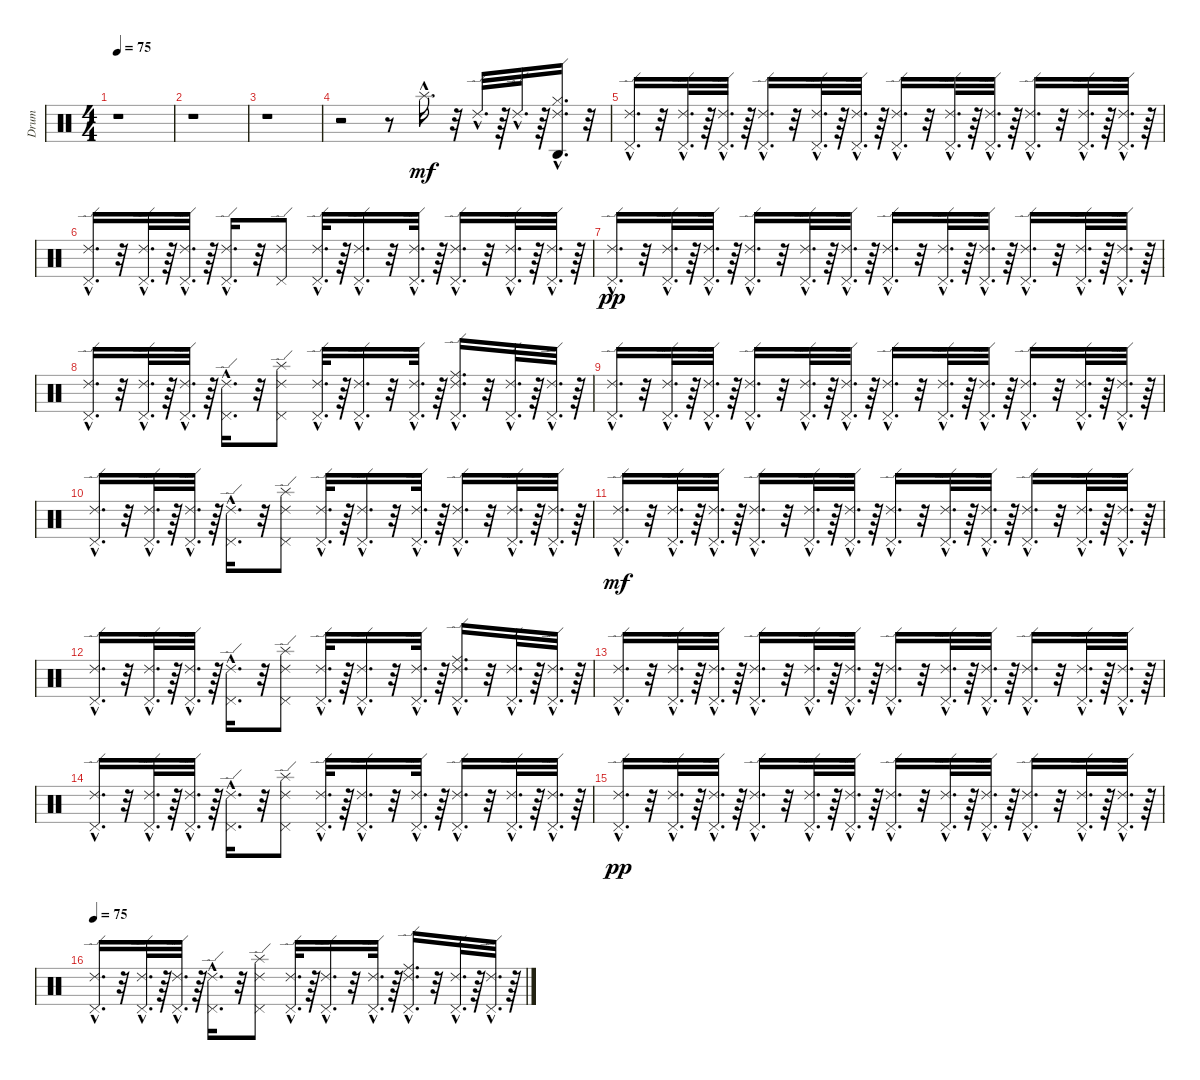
\track ("Drum" "Drum") {instrument percussion}
\staff {score}
\articulation defaults
\ts (4 4)
\tempo 75
\clef neutral
\ks c
r.1{dy mf} |
r.1 |
r.1 |
r.2 r.8 "Splash (hit)"{hac}.16{d} r.32 "Ride (edge) 2"{hac}.32{d} r.64 "Ride (edge) 2"{hac}.32{d} r.64 ("Hi-Hat (closed)"{hac} "Agogo high (hit)"{hac} "Ride (edge) 2"{hac}).16{d} r.32 |
("Pedal Hi-Hat (hit)"{hac} "Ride (edge) 2"{hac}).16{d} r.32 ("Pedal Hi-Hat (hit)"{hac} "Ride (edge) 2"{hac}).32{d} r.64 ("Pedal Hi-Hat (hit)"{hac} "Ride (edge) 2"{hac}).32{d} r.64 ("Pedal Hi-Hat (hit)"{hac} "Ride (edge) 2"{hac}).16{d} r.32 ("Pedal Hi-Hat (hit)"{hac} "Ride (edge) 2"{hac}).32{d} r.64 ("Pedal Hi-Hat (hit)"{hac} "Ride (edge) 2"{hac}).32{d} r.64 ("Pedal Hi-Hat (hit)"{hac} "Ride (edge) 2"{hac}).16{d} r.32 ("Pedal Hi-Hat (hit)"{hac} "Ride (edge) 2"{hac}).32{d} r.64 ("Pedal Hi-Hat (hit)"{hac} "Ride (edge) 2"{hac}).32{d} r.64 ("Pedal Hi-Hat (hit)"{hac} "Ride (edge) 2"{hac}).16{d} r.32 ("Pedal Hi-Hat (hit)"{hac} "Ride (edge) 2"{hac}).32{d} r.64 ("Pedal Hi-Hat (hit)"{hac} "Ride (edge) 2"{hac}).32{d} r.64 |
("Pedal Hi-Hat (hit)"{hac} "Ride (edge) 2"{hac}).16{d} r.32 ("Pedal Hi-Hat (hit)"{hac} "Ride (edge) 2"{hac}).32{d} r.64 ("Pedal Hi-Hat (hit)"{hac} "Ride (edge) 2"{hac}).32{d} r.64 ("Pedal Hi-Hat (hit)"{hac} "Ride (edge) 2"{hac}).16{d} r.32 ("Pedal Hi-Hat (hit)" "Ride (edge) 2").8 ("Pedal Hi-Hat (hit)"{hac} "Ride (edge) 2"{hac}).32{d} r.64 ("Pedal Hi-Hat (hit)"{hac} "Ride (edge) 2"{hac}).16{d} r.32 ("Pedal Hi-Hat (hit)"{hac} "Ride (edge) 2"{hac}).32{d} r.64 ("Pedal Hi-Hat (hit)"{hac} "Ride (edge) 2"{hac}).16{d} r.32 ("Pedal Hi-Hat (hit)"{hac} "Ride (edge) 2"{hac}).32{d} r.64 ("Pedal Hi-Hat (hit)"{hac} "Ride (edge) 2"{hac}).32{d} r.64 |
("Ride (edge) 2"{hac} "Pedal Hi-Hat (hit)"{hac}).16{d dy pp} r.32 ("Ride (edge) 2"{hac} "Pedal Hi-Hat (hit)"{hac}).32{d} r.64 ("Ride (edge) 2"{hac} "Pedal Hi-Hat (hit)"{hac}).32{d} r.64 ("Ride (edge) 2"{hac} "Pedal Hi-Hat (hit)"{hac}).16{d} r.32 ("Ride (edge) 2"{hac} "Pedal Hi-Hat (hit)"{hac}).32{d} r.64 ("Ride (edge) 2"{hac} "Pedal Hi-Hat (hit)"{hac}).32{d} r.64 ("Ride (edge) 2"{hac} "Pedal Hi-Hat (hit)"{hac}).16{d} r.32 ("Ride (edge) 2"{hac} "Pedal Hi-Hat (hit)"{hac}).32{d} r.64 ("Ride (edge) 2"{hac} "Pedal Hi-Hat (hit)"{hac}).32{d} r.64 ("Ride (edge) 2"{hac} "Pedal Hi-Hat (hit)"{hac}).16{d} r.32 ("Ride (edge) 2"{hac} "Pedal Hi-Hat (hit)"{hac}).32{d} r.64 ("Ride (edge) 2"{hac} "Pedal Hi-Hat (hit)"{hac}).32{d} r.64 |
("Ride (edge) 2"{hac} "Pedal Hi-Hat (hit)"{hac}).16{d} r.32 ("Ride (edge) 2"{hac} "Pedal Hi-Hat (hit)"{hac}).32{d} r.64 ("Ride (edge) 2"{hac} "Pedal Hi-Hat (hit)"{hac}).32{d} r.64 ("Ride (edge) 2"{hac} "Pedal Hi-Hat (hit)"{hac}).16{d} r.32 ("Splash (hit)" "Ride (edge) 2" "Pedal Hi-Hat (hit)").8 ("Ride (edge) 2"{hac} "Pedal Hi-Hat (hit)"{hac}).32{d} r.64 ("Ride (edge) 2"{hac} "Pedal Hi-Hat (hit)"{hac}).16{d} r.32 ("Ride (edge) 2"{hac} "Pedal Hi-Hat (hit)"{hac}).32{d} r.64 ("Ride (middle)"{hac} "Ride (edge) 2"{hac} "Pedal Hi-Hat (hit)"{hac}).16{d} r.32 ("Ride (edge) 2"{hac} "Pedal Hi-Hat (hit)"{hac}).32{d} r.64 ("Ride (edge) 2"{hac} "Pedal Hi-Hat (hit)"{hac}).32{d} r.64 |
("Ride (edge) 2"{hac} "Pedal Hi-Hat (hit)"{hac}).16{d} r.32 ("Ride (edge) 2"{hac} "Pedal Hi-Hat (hit)"{hac}).32{d} r.64 ("Ride (edge) 2"{hac} "Pedal Hi-Hat (hit)"{hac}).32{d} r.64 ("Ride (edge) 2"{hac} "Pedal Hi-Hat (hit)"{hac}).16{d} r.32 ("Ride (edge) 2"{hac} "Pedal Hi-Hat (hit)"{hac}).32{d} r.64 ("Ride (edge) 2"{hac} "Pedal Hi-Hat (hit)"{hac}).32{d} r.64 ("Ride (edge) 2"{hac} "Pedal Hi-Hat (hit)"{hac}).16{d} r.32 ("Ride (edge) 2"{hac} "Pedal Hi-Hat (hit)"{hac}).32{d} r.64 ("Ride (edge) 2"{hac} "Pedal Hi-Hat (hit)"{hac}).32{d} r.64 ("Ride (edge) 2"{hac} "Pedal Hi-Hat (hit)"{hac}).16{d} r.32 ("Ride (edge) 2"{hac} "Pedal Hi-Hat (hit)"{hac}).32{d} r.64 ("Ride (edge) 2"{hac} "Pedal Hi-Hat (hit)"{hac}).32{d} r.64 |
("Ride (edge) 2"{hac} "Pedal Hi-Hat (hit)"{hac}).16{d} r.32 ("Ride (edge) 2"{hac} "Pedal Hi-Hat (hit)"{hac}).32{d} r.64 ("Ride (edge) 2"{hac} "Pedal Hi-Hat (hit)"{hac}).32{d} r.64 ("Ride (edge) 2"{hac} "Pedal Hi-Hat (hit)"{hac}).16{d} r.32 ("Splash (hit)" "Ride (edge) 2" "Pedal Hi-Hat (hit)").8 ("Ride (edge) 2"{hac} "Pedal Hi-Hat (hit)"{hac}).32{d} r.64 ("Ride (edge) 2"{hac} "Pedal Hi-Hat (hit)"{hac}).16{d} r.32 ("Ride (edge) 2"{hac} "Pedal Hi-Hat (hit)"{hac}).32{d} r.64 ("Ride (edge) 2"{hac} "Pedal Hi-Hat (hit)"{hac}).16{d} r.32 ("Ride (edge) 2"{hac} "Pedal Hi-Hat (hit)"{hac}).32{d} r.64 ("Ride (edge) 2"{hac} "Pedal Hi-Hat (hit)"{hac}).32{d} r.64 |
("Pedal Hi-Hat (hit)"{hac} "Ride (edge) 2"{hac}).16{d dy mf} r.32 ("Pedal Hi-Hat (hit)"{hac} "Ride (edge) 2"{hac}).32{d} r.64 ("Pedal Hi-Hat (hit)"{hac} "Ride (edge) 2"{hac}).32{d} r.64 ("Pedal Hi-Hat (hit)"{hac} "Ride (edge) 2"{hac}).16{d} r.32 ("Pedal Hi-Hat (hit)"{hac} "Ride (edge) 2"{hac}).32{d} r.64 ("Pedal Hi-Hat (hit)"{hac} "Ride (edge) 2"{hac}).32{d} r.64 ("Pedal Hi-Hat (hit)"{hac} "Ride (edge) 2"{hac}).16{d} r.32 ("Pedal Hi-Hat (hit)"{hac} "Ride (edge) 2"{hac}).32{d} r.64 ("Pedal Hi-Hat (hit)"{hac} "Ride (edge) 2"{hac}).32{d} r.64 ("Pedal Hi-Hat (hit)"{hac} "Ride (edge) 2"{hac}).16{d} r.32 ("Pedal Hi-Hat (hit)"{hac} "Ride (edge) 2"{hac}).32{d} r.64 ("Pedal Hi-Hat (hit)"{hac} "Ride (edge) 2"{hac}).32{d} r.64 |
("Pedal Hi-Hat (hit)"{hac} "Ride (edge) 2"{hac}).16{d} r.32 ("Pedal Hi-Hat (hit)"{hac} "Ride (edge) 2"{hac}).32{d} r.64 ("Pedal Hi-Hat (hit)"{hac} "Ride (edge) 2"{hac}).32{d} r.64 ("Pedal Hi-Hat (hit)"{hac} "Ride (edge) 2"{hac}).16{d} r.32 ("Pedal Hi-Hat (hit)" "Ride (edge) 2" "Splash (hit)").8 ("Pedal Hi-Hat (hit)"{hac} "Ride (edge) 2"{hac}).32{d} r.64 ("Pedal Hi-Hat (hit)"{hac} "Ride (edge) 2"{hac}).16{d} r.32 ("Pedal Hi-Hat (hit)"{hac} "Ride (edge) 2"{hac}).32{d} r.64 ("Pedal Hi-Hat (hit)"{hac} "Ride (edge) 2"{hac} "Ride (middle)"{hac}).16{d} r.32 ("Pedal Hi-Hat (hit)"{hac} "Ride (edge) 2"{hac}).32{d} r.64 ("Pedal Hi-Hat (hit)"{hac} "Ride (edge) 2"{hac}).32{d} r.64 |
("Pedal Hi-Hat (hit)"{hac} "Ride (edge) 2"{hac}).16{d} r.32 ("Pedal Hi-Hat (hit)"{hac} "Ride (edge) 2"{hac}).32{d} r.64 ("Pedal Hi-Hat (hit)"{hac} "Ride (edge) 2"{hac}).32{d} r.64 ("Pedal Hi-Hat (hit)"{hac} "Ride (edge) 2"{hac}).16{d} r.32 ("Pedal Hi-Hat (hit)"{hac} "Ride (edge) 2"{hac}).32{d} r.64 ("Pedal Hi-Hat (hit)"{hac} "Ride (edge) 2"{hac}).32{d} r.64 ("Pedal Hi-Hat (hit)"{hac} "Ride (edge) 2"{hac}).16{d} r.32 ("Pedal Hi-Hat (hit)"{hac} "Ride (edge) 2"{hac}).32{d} r.64 ("Pedal Hi-Hat (hit)"{hac} "Ride (edge) 2"{hac}).32{d} r.64 ("Pedal Hi-Hat (hit)"{hac} "Ride (edge) 2"{hac}).16{d} r.32 ("Pedal Hi-Hat (hit)"{hac} "Ride (edge) 2"{hac}).32{d} r.64 ("Pedal Hi-Hat (hit)"{hac} "Ride (edge) 2"{hac}).32{d} r.64 |
("Pedal Hi-Hat (hit)"{hac} "Ride (edge) 2"{hac}).16{d} r.32 ("Pedal Hi-Hat (hit)"{hac} "Ride (edge) 2"{hac}).32{d} r.64 ("Pedal Hi-Hat (hit)"{hac} "Ride (edge) 2"{hac}).32{d} r.64 ("Pedal Hi-Hat (hit)"{hac} "Ride (edge) 2"{hac}).16{d} r.32 ("Pedal Hi-Hat (hit)" "Ride (edge) 2" "Splash (hit)").8 ("Pedal Hi-Hat (hit)"{hac} "Ride (edge) 2"{hac}).32{d} r.64 ("Pedal Hi-Hat (hit)"{hac} "Ride (edge) 2"{hac}).16{d} r.32 ("Pedal Hi-Hat (hit)"{hac} "Ride (edge) 2"{hac}).32{d} r.64 ("Pedal Hi-Hat (hit)"{hac} "Ride (edge) 2"{hac}).16{d} r.32 ("Pedal Hi-Hat (hit)"{hac} "Ride (edge) 2"{hac}).32{d} r.64 ("Pedal Hi-Hat (hit)"{hac} "Ride (edge) 2"{hac}).32{d} r.64 |
("Ride (edge) 2"{hac} "Pedal Hi-Hat (hit)"{hac}).16{d dy pp} r.32 ("Ride (edge) 2"{hac} "Pedal Hi-Hat (hit)"{hac}).32{d} r.64 ("Ride (edge) 2"{hac} "Pedal Hi-Hat (hit)"{hac}).32{d} r.64 ("Ride (edge) 2"{hac} "Pedal Hi-Hat (hit)"{hac}).16{d} r.32 ("Ride (edge) 2"{hac} "Pedal Hi-Hat (hit)"{hac}).32{d} r.64 ("Ride (edge) 2"{hac} "Pedal Hi-Hat (hit)"{hac}).32{d} r.64 ("Ride (edge) 2"{hac} "Pedal Hi-Hat (hit)"{hac}).16{d} r.32 ("Ride (edge) 2"{hac} "Pedal Hi-Hat (hit)"{hac}).32{d} r.64 ("Ride (edge) 2"{hac} "Pedal Hi-Hat (hit)"{hac}).32{d} r.64 ("Ride (edge) 2"{hac} "Pedal Hi-Hat (hit)"{hac}).16{d} r.32 ("Ride (edge) 2"{hac} "Pedal Hi-Hat (hit)"{hac}).32{d} r.64 ("Ride (edge) 2"{hac} "Pedal Hi-Hat (hit)"{hac}).32{d} r.64 |
\tempo 75
("Ride (edge) 2"{hac} "Pedal Hi-Hat (hit)"{hac}).16{d} r.32 ("Ride (edge) 2"{hac} "Pedal Hi-Hat (hit)"{hac}).32{d} r.64 ("Ride (edge) 2"{hac} "Pedal Hi-Hat (hit)"{hac}).32{d} r.64 ("Ride (edge) 2"{hac} "Pedal Hi-Hat (hit)"{hac}).16{d} r.32 ("Splash (hit)" "Ride (edge) 2" "Pedal Hi-Hat (hit)").8 ("Ride (edge) 2"{hac} "Pedal Hi-Hat (hit)"{hac}).32{d} r.64 ("Ride (edge) 2"{hac} "Pedal Hi-Hat (hit)"{hac}).16{d} r.32 ("Ride (edge) 2"{hac} "Pedal Hi-Hat (hit)"{hac}).32{d} r.64 ("Ride (middle)"{hac} "Ride (edge) 2"{hac} "Pedal Hi-Hat (hit)"{hac}).16{d} r.32 ("Ride (edge) 2"{hac} "Pedal Hi-Hat (hit)"{hac}).32{d} r.64 ("Ride (edge) 2"{hac} "Pedal Hi-Hat (hit)"{hac}).32{d} r.64
